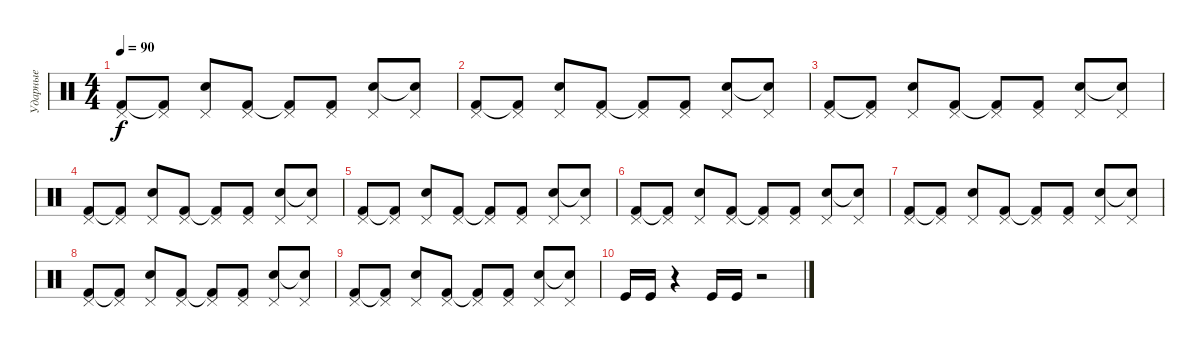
\track ("Ударные" "Ударные") {instrument percussion}
\staff {score}
\articulation defaults
\ts (4 4)
\tempo 90
\clef neutral
\ks c
("Kick (hit) 2" "Pedal Hi-Hat (hit)").8{dy f} ("Kick (hit) 2"{t} "Pedal Hi-Hat (hit)").8 ("Snare (hit) 2" "Pedal Hi-Hat (hit)").8 ("Kick (hit) 2" "Pedal Hi-Hat (hit)").8 ("Kick (hit) 2"{t} "Pedal Hi-Hat (hit)").8 ("Kick (hit) 2" "Pedal Hi-Hat (hit)").8 ("Snare (hit) 2" "Pedal Hi-Hat (hit)").8 ("Snare (hit) 2"{t} "Pedal Hi-Hat (hit)").8 |
("Kick (hit) 2" "Pedal Hi-Hat (hit)").8 ("Kick (hit) 2"{t} "Pedal Hi-Hat (hit)").8 ("Snare (hit) 2" "Pedal Hi-Hat (hit)").8 ("Kick (hit) 2" "Pedal Hi-Hat (hit)").8 ("Kick (hit) 2"{t} "Pedal Hi-Hat (hit)").8 ("Kick (hit) 2" "Pedal Hi-Hat (hit)").8 ("Snare (hit) 2" "Pedal Hi-Hat (hit)").8 ("Snare (hit) 2"{t} "Pedal Hi-Hat (hit)").8 |
("Kick (hit) 2" "Pedal Hi-Hat (hit)").8 ("Kick (hit) 2"{t} "Pedal Hi-Hat (hit)").8 ("Snare (hit) 2" "Pedal Hi-Hat (hit)").8 ("Kick (hit) 2" "Pedal Hi-Hat (hit)").8 ("Kick (hit) 2"{t} "Pedal Hi-Hat (hit)").8 ("Kick (hit) 2" "Pedal Hi-Hat (hit)").8 ("Snare (hit) 2" "Pedal Hi-Hat (hit)").8 ("Snare (hit) 2"{t} "Pedal Hi-Hat (hit)").8 |
("Kick (hit) 2" "Pedal Hi-Hat (hit)").8 ("Kick (hit) 2"{t} "Pedal Hi-Hat (hit)").8 ("Snare (hit) 2" "Pedal Hi-Hat (hit)").8 ("Kick (hit) 2" "Pedal Hi-Hat (hit)").8 ("Kick (hit) 2"{t} "Pedal Hi-Hat (hit)").8 ("Kick (hit) 2" "Pedal Hi-Hat (hit)").8 ("Snare (hit) 2" "Pedal Hi-Hat (hit)").8 ("Snare (hit) 2"{t} "Pedal Hi-Hat (hit)").8 |
("Kick (hit) 2" "Pedal Hi-Hat (hit)").8 ("Kick (hit) 2"{t} "Pedal Hi-Hat (hit)").8 ("Snare (hit) 2" "Pedal Hi-Hat (hit)").8 ("Kick (hit) 2" "Pedal Hi-Hat (hit)").8 ("Kick (hit) 2"{t} "Pedal Hi-Hat (hit)").8 ("Kick (hit) 2" "Pedal Hi-Hat (hit)").8 ("Snare (hit) 2" "Pedal Hi-Hat (hit)").8 ("Snare (hit) 2"{t} "Pedal Hi-Hat (hit)").8 |
("Kick (hit) 2" "Pedal Hi-Hat (hit)").8 ("Kick (hit) 2"{t} "Pedal Hi-Hat (hit)").8 ("Snare (hit) 2" "Pedal Hi-Hat (hit)").8 ("Kick (hit) 2" "Pedal Hi-Hat (hit)").8 ("Kick (hit) 2"{t} "Pedal Hi-Hat (hit)").8 ("Kick (hit) 2" "Pedal Hi-Hat (hit)").8 ("Snare (hit) 2" "Pedal Hi-Hat (hit)").8 ("Snare (hit) 2"{t} "Pedal Hi-Hat (hit)").8 |
("Kick (hit) 2" "Pedal Hi-Hat (hit)").8 ("Kick (hit) 2"{t} "Pedal Hi-Hat (hit)").8 ("Snare (hit) 2" "Pedal Hi-Hat (hit)").8 ("Kick (hit) 2" "Pedal Hi-Hat (hit)").8 ("Kick (hit) 2"{t} "Pedal Hi-Hat (hit)").8 ("Kick (hit) 2" "Pedal Hi-Hat (hit)").8 ("Snare (hit) 2" "Pedal Hi-Hat (hit)").8 ("Snare (hit) 2"{t} "Pedal Hi-Hat (hit)").8 |
("Kick (hit) 2" "Pedal Hi-Hat (hit)").8 ("Kick (hit) 2"{t} "Pedal Hi-Hat (hit)").8 ("Snare (hit) 2" "Pedal Hi-Hat (hit)").8 ("Kick (hit) 2" "Pedal Hi-Hat (hit)").8 ("Kick (hit) 2"{t} "Pedal Hi-Hat (hit)").8 ("Kick (hit) 2" "Pedal Hi-Hat (hit)").8 ("Snare (hit) 2" "Pedal Hi-Hat (hit)").8 ("Snare (hit) 2"{t} "Pedal Hi-Hat (hit)").8 |
("Kick (hit) 2" "Pedal Hi-Hat (hit)").8 ("Kick (hit) 2"{t} "Pedal Hi-Hat (hit)").8 ("Snare (hit) 2" "Pedal Hi-Hat (hit)").8 ("Kick (hit) 2" "Pedal Hi-Hat (hit)").8 ("Kick (hit) 2"{t} "Pedal Hi-Hat (hit)").8 ("Kick (hit) 2" "Pedal Hi-Hat (hit)").8 ("Snare (hit) 2" "Pedal Hi-Hat (hit)").8 ("Snare (hit) 2"{t} "Pedal Hi-Hat (hit)").8 |
"Kick (hit)".16 "Kick (hit)".16 r.4 "Kick (hit)".16 "Kick (hit)".16 r.2
